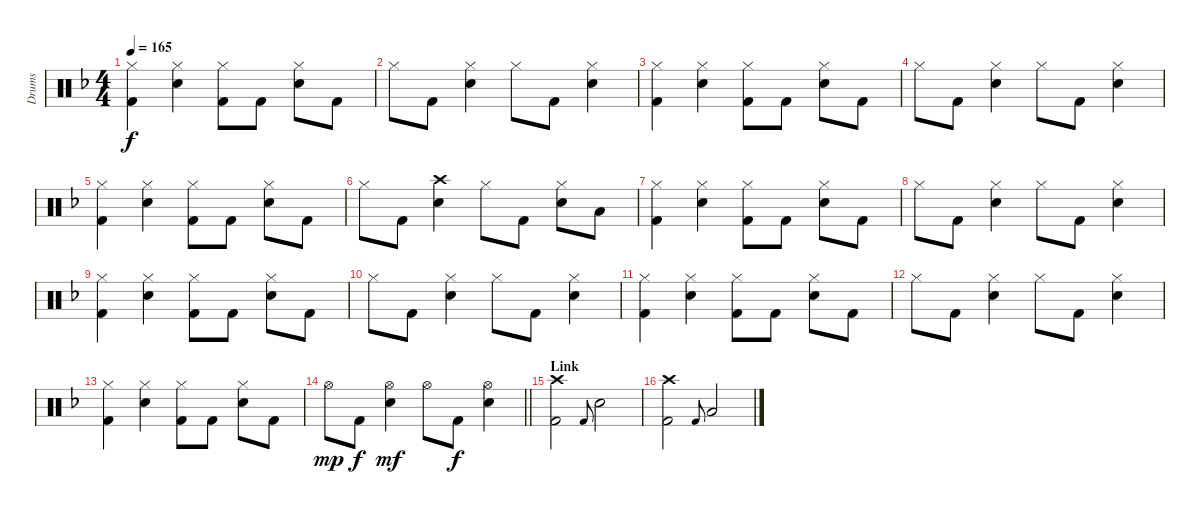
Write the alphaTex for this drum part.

\track ("Drums" "Drums") {instrument percussion}
\staff {score}
\articulation defaults
\ts (4 4)
\tempo 165
\clef neutral
\ks f
("Hi-Hat (closed)" "Kick (hit) 2").4{dy f} ("Hi-Hat (closed)" "Electric Snare (hit)").4 ("Hi-Hat (closed)" "Kick (hit) 2").8 "Kick (hit) 2".8 ("Hi-Hat (closed)" "Electric Snare (hit)").8 "Kick (hit) 2".8 |
"Hi-Hat (closed)".8 "Kick (hit) 2".8 ("Hi-Hat (closed)" "Electric Snare (hit)").4 "Hi-Hat (closed)".8 "Kick (hit) 2".8 ("Hi-Hat (closed)" "Electric Snare (hit)").4 |
("Hi-Hat (closed)" "Kick (hit) 2").4 ("Hi-Hat (closed)" "Electric Snare (hit)").4 ("Hi-Hat (closed)" "Kick (hit) 2").8 "Kick (hit) 2".8 ("Hi-Hat (closed)" "Electric Snare (hit)").8 "Kick (hit) 2".8 |
"Hi-Hat (closed)".8 "Kick (hit) 2".8 ("Hi-Hat (closed)" "Electric Snare (hit)").4 "Hi-Hat (closed)".8 "Kick (hit) 2".8 ("Hi-Hat (closed)" "Electric Snare (hit)").4 |
("Hi-Hat (closed)" "Kick (hit) 2").4 ("Hi-Hat (closed)" "Electric Snare (hit)").4 ("Hi-Hat (closed)" "Kick (hit) 2").8 "Kick (hit) 2".8 ("Hi-Hat (closed)" "Electric Snare (hit)").8 "Kick (hit) 2".8 |
"Hi-Hat (closed)".8 "Kick (hit) 2".8 ("Crash high (hit)" "Electric Snare (hit)").4 "Hi-Hat (closed)".8 "Kick (hit) 2".8 ("Hi-Hat (closed)" "Electric Snare (hit)").8 "Low Tom (hit)".8 |
("Hi-Hat (closed)" "Kick (hit) 2").4 ("Hi-Hat (closed)" "Electric Snare (hit)").4 ("Hi-Hat (closed)" "Kick (hit) 2").8 "Kick (hit) 2".8 ("Hi-Hat (closed)" "Electric Snare (hit)").8 "Kick (hit) 2".8 |
"Hi-Hat (closed)".8 "Kick (hit) 2".8 ("Hi-Hat (closed)" "Electric Snare (hit)").4 "Hi-Hat (closed)".8 "Kick (hit) 2".8 ("Hi-Hat (closed)" "Electric Snare (hit)").4 |
("Hi-Hat (closed)" "Kick (hit) 2").4 ("Hi-Hat (closed)" "Electric Snare (hit)").4 ("Hi-Hat (closed)" "Kick (hit) 2").8 "Kick (hit) 2".8 ("Hi-Hat (closed)" "Electric Snare (hit)").8 "Kick (hit) 2".8 |
"Hi-Hat (closed)".8 "Kick (hit) 2".8 ("Hi-Hat (closed)" "Electric Snare (hit)").4 "Hi-Hat (closed)".8 "Kick (hit) 2".8 ("Hi-Hat (closed)" "Electric Snare (hit)").4 |
("Hi-Hat (closed)" "Kick (hit) 2").4 ("Hi-Hat (closed)" "Electric Snare (hit)").4 ("Hi-Hat (closed)" "Kick (hit) 2").8 "Kick (hit) 2".8 ("Hi-Hat (closed)" "Electric Snare (hit)").8 "Kick (hit) 2".8 |
"Hi-Hat (closed)".8 "Kick (hit) 2".8 ("Hi-Hat (closed)" "Electric Snare (hit)").4 "Hi-Hat (closed)".8 "Kick (hit) 2".8 ("Hi-Hat (closed)" "Electric Snare (hit)").4 |
("Hi-Hat (closed)" "Kick (hit) 2").4 ("Hi-Hat (closed)" "Electric Snare (hit)").4 ("Hi-Hat (closed)" "Kick (hit) 2").8 "Kick (hit) 2".8 ("Hi-Hat (closed)" "Electric Snare (hit)").8 "Kick (hit) 2".8 |
\barLineRight lightlight "Hi-Hat (open)".8{dy mp} "Kick (hit) 2".8{dy f}
("Hi-Hat (open)" "Electric Snare (hit)").4{dy mf} "Hi-Hat (open)".8 "Kick (hit) 2".8{dy f} ("Hi-Hat (open)" "Electric Snare (hit)").4 |
\section ("" "Link")
("Crash high (hit)" "Kick (hit) 2").2 "Kick (hit) 2".8{gr onbeat} "Electric Snare (hit)".2 |
("Crash high (hit)" "Kick (hit) 2").2 "Kick (hit) 2".8{gr onbeat} "Low Tom (hit)".2
